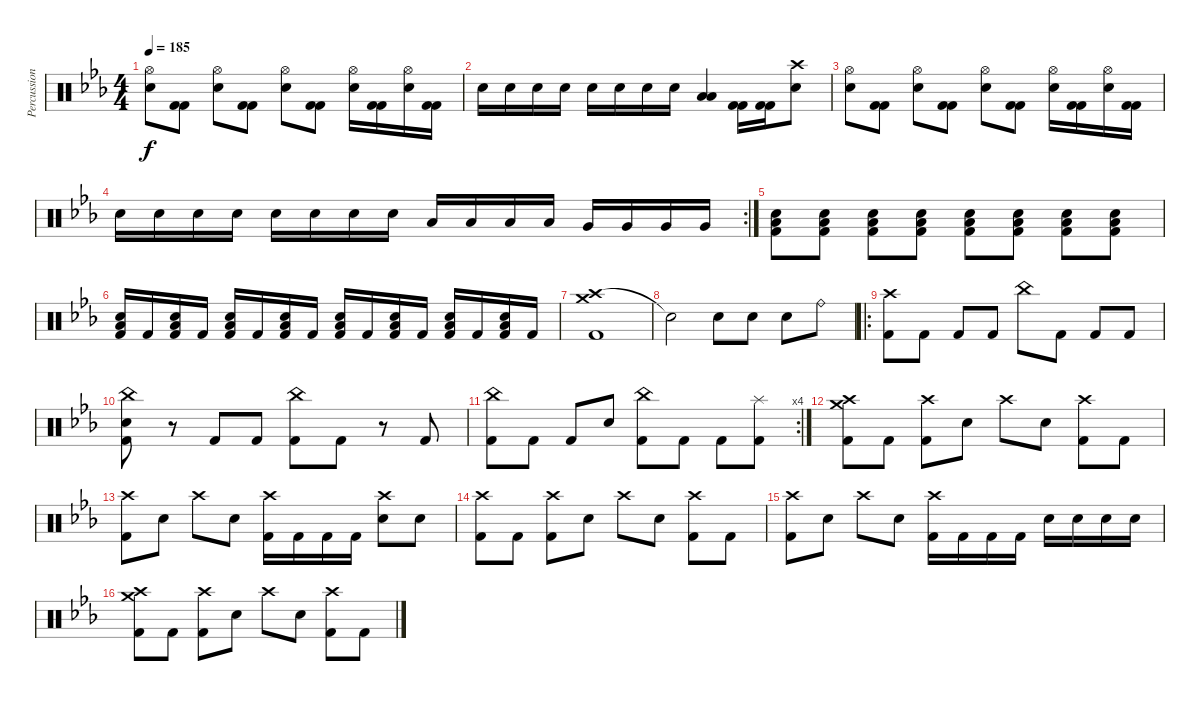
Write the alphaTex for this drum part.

\track ("Percussion" "Percussion") {instrument percussion}
\staff {score}
\articulation defaults
\ts (4 4)
\tempo 185
\clef neutral
\ks cminor
("Hi-Hat (open)" "Electric Snare (hit)").8{dy f} ("Kick (hit) 2" "Kick (hit) 2").8 ("Hi-Hat (open)" "Electric Snare (hit)").8 ("Kick (hit) 2" "Kick (hit) 2").8 ("Hi-Hat (open)" "Electric Snare (hit)").8 ("Kick (hit) 2" "Kick (hit) 2").8 ("Hi-Hat (open)" "Electric Snare (hit)").16 ("Kick (hit) 2" "Kick (hit) 2").16 ("Hi-Hat (open)" "Electric Snare (hit)").16 ("Kick (hit) 2" "Kick (hit) 2").16 |
"Electric Snare (hit)".16 "Electric Snare (hit)".16 "Electric Snare (hit)".16 "Electric Snare (hit)".16 "Electric Snare (hit)".16 "Electric Snare (hit)".16 "Electric Snare (hit)".16 "Electric Snare (hit)".16 ("Low Floor Tom (hit)" "Low Tom (hit)").4 ("Kick (hit) 2" "Kick (hit) 2").16 ("Kick (hit) 2" "Kick (hit) 2").16 ("Crash high (hit)" "Electric Snare (hit)").8 |
("Hi-Hat (open)" "Electric Snare (hit)").8 ("Kick (hit) 2" "Kick (hit) 2").8 ("Hi-Hat (open)" "Electric Snare (hit)").8 ("Kick (hit) 2" "Kick (hit) 2").8 ("Hi-Hat (open)" "Electric Snare (hit)").8 ("Kick (hit) 2" "Kick (hit) 2").8 ("Hi-Hat (open)" "Electric Snare (hit)").16 ("Kick (hit) 2" "Kick (hit) 2").16 ("Hi-Hat (open)" "Electric Snare (hit)").16 ("Kick (hit) 2" "Kick (hit) 2").16 |
\rc 2 "Electric Snare (hit)".16 "Electric Snare (hit)".16 "Electric Snare (hit)".16 "Electric Snare (hit)".16 "Electric Snare (hit)".16 "Electric Snare (hit)".16 "Electric Snare (hit)".16 "Electric Snare (hit)".16 "Low Tom (hit)".16 "Low Tom (hit)".16 "Low Tom (hit)".16 "Low Tom (hit)".16 "Very Low Tom (hit)".16 "Very Low Tom (hit)".16 "Very Low Tom (hit)".16 "Very Low Tom (hit)".16
|
("Low Floor Tom (hit)" "Electric Snare (hit)" "Kick (hit) 2").8 ("Low Floor Tom (hit)" "Electric Snare (hit)" "Kick (hit) 2").8 ("Low Floor Tom (hit)" "Electric Snare (hit)" "Kick (hit) 2").8 ("Low Floor Tom (hit)" "Electric Snare (hit)" "Kick (hit) 2").8 ("Low Floor Tom (hit)" "Electric Snare (hit)" "Kick (hit) 2").8 ("Low Floor Tom (hit)" "Electric Snare (hit)" "Kick (hit) 2").8 ("Low Floor Tom (hit)" "Electric Snare (hit)" "Kick (hit) 2").8 ("Low Floor Tom (hit)" "Electric Snare (hit)" "Kick (hit) 2").8 |
("Low Floor Tom (hit)" "Electric Snare (hit)" "Kick (hit) 2").16 "Kick (hit) 2".16 ("Low Floor Tom (hit)" "Electric Snare (hit)" "Kick (hit) 2").16 "Kick (hit) 2".16 ("Low Floor Tom (hit)" "Electric Snare (hit)" "Kick (hit) 2").16 "Kick (hit) 2".16 ("Low Floor Tom (hit)" "Electric Snare (hit)" "Kick (hit) 2").16 "Kick (hit) 2".16 ("Low Floor Tom (hit)" "Electric Snare (hit)" "Kick (hit) 2").16 "Kick (hit) 2".16 ("Low Floor Tom (hit)" "Electric Snare (hit)" "Kick (hit) 2").16 "Kick (hit) 2".16 ("Low Floor Tom (hit)" "Electric Snare (hit)" "Kick (hit) 2").16 "Kick (hit) 2".16 ("Low Floor Tom (hit)" "Electric Snare (hit)" "Kick (hit) 2").16 "Kick (hit) 2".16 |
("Crash high (hit)" "Crash medium (hit)" "Kick (hit) 2").1 |
"Snare (hit)"{t}.2 "Electric Snare (hit)".8 "Electric Snare (hit)".8 "Electric Snare (hit)".8 "Ride (bell)".8 |
\ro
("Crash high (hit)" "Kick (hit) 2").8 "Kick (hit) 2".8 "Kick (hit) 2".8 "Kick (hit) 2".8 "China (hit)".8 "Kick (hit) 2".8 "Kick (hit) 2".8 "Kick (hit) 2".8 |
("China (hit)" "Electric Snare (hit)" "Kick (hit) 2").8 r.8 "Kick (hit) 2".8 "Kick (hit) 2".8 ("China (hit)" "Kick (hit) 2").8 "Kick (hit) 2".8 r.8 "Kick (hit) 2".8 |
\rc 4
("China (hit)" "Kick (hit) 2").8 "Kick (hit) 2".8 "Kick (hit) 2".8 "Snare (hit) 2".8 ("China (hit)" "Kick (hit) 2").8 "Kick (hit) 2".8 "Kick (hit) 2".8 ("Splash (hit)" "Kick (hit) 2").8 |
("Crash high (hit)" "Crash medium (hit)" "Kick (hit) 2").8 "Kick (hit) 2".8 ("Crash high (hit)" "Kick (hit) 2").8 "Electric Snare (hit)".8 "Crash high (hit)".8 "Electric Snare (hit)".8 ("Crash high (hit)" "Kick (hit) 2").8 "Kick (hit) 2".8 |
("Crash high (hit)" "Kick (hit) 2").8 "Electric Snare (hit)".8 "Crash high (hit)".8 "Electric Snare (hit)".8 ("Crash high (hit)" "Kick (hit) 2").16 "Kick (hit) 2".16 "Kick (hit) 2".16 "Kick (hit) 2".16 ("Crash high (hit)" "Electric Snare (hit)").8 "Electric Snare (hit)".8 |
("Crash high (hit)" "Kick (hit) 2").8 "Kick (hit) 2".8 ("Crash high (hit)" "Kick (hit) 2").8 "Electric Snare (hit)".8 "Crash high (hit)".8 "Electric Snare (hit)".8 ("Crash high (hit)" "Kick (hit) 2").8 "Kick (hit) 2".8 |
("Crash high (hit)" "Kick (hit) 2").8 "Electric Snare (hit)".8 "Crash high (hit)".8 "Electric Snare (hit)".8 ("Crash high (hit)" "Kick (hit) 2").16 "Kick (hit) 2".16 "Kick (hit) 2".16 "Kick (hit) 2".16 "Electric Snare (hit)".16 "Electric Snare (hit)".16 "Electric Snare (hit)".16 "Electric Snare (hit)".16 |
("Crash high (hit)" "Crash medium (hit)" "Kick (hit) 2").8 "Kick (hit) 2".8 ("Crash high (hit)" "Kick (hit) 2").8 "Electric Snare (hit)".8 "Crash high (hit)".8 "Electric Snare (hit)".8 ("Crash high (hit)" "Kick (hit) 2").8 "Kick (hit) 2".8
